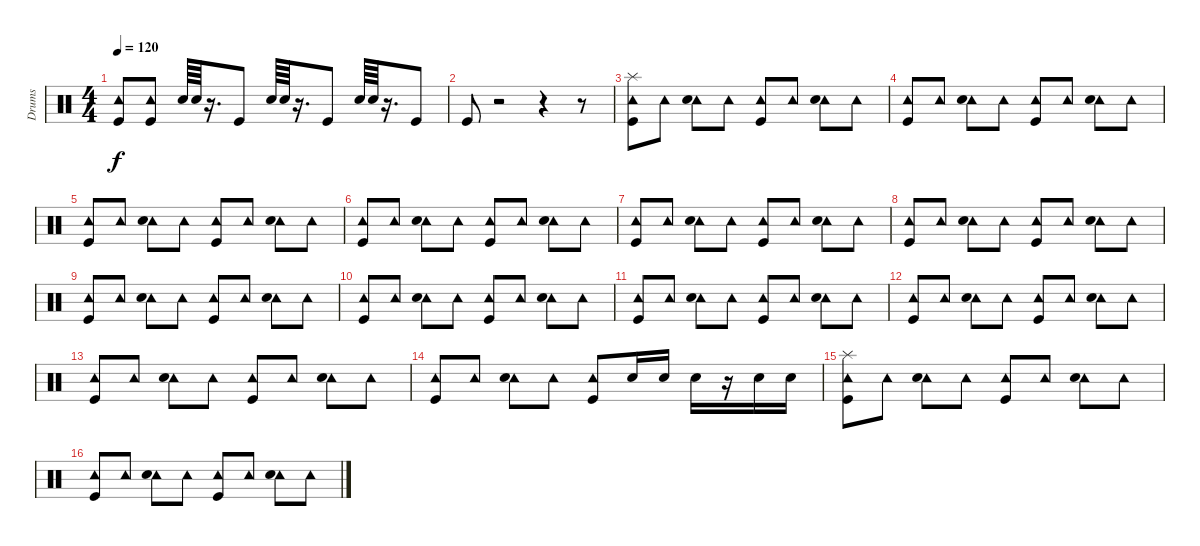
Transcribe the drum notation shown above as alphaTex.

\track ("Drums" "Drums") {instrument percussion}
\staff {score}
\articulation defaults
\ts (4 4)
\tempo 120
\clef neutral
\ks c
("Tambourine (hit)" "Kick (hit)").8{dy f} ("Tambourine (hit)" "Kick (hit)").8 "Snare (hit) 2".64 "Snare (hit) 2".64 r.16{d} "Kick (hit)".8 "Snare (hit) 2".64 "Snare (hit) 2".64 r.16{d} "Kick (hit)".8 "Snare (hit) 2".64 "Snare (hit) 2".64 r.16{d} "Kick (hit)".8 |
"Kick (hit)".8 r.2 r.4 r.8 |
("Tambourine (hit)" "Kick (hit)" "Splash (hit)").8 "Tambourine (hit)".8 ("Tambourine (hit)" "Snare (hit) 2").8 "Tambourine (hit)".8 ("Tambourine (hit)" "Kick (hit)").8 "Tambourine (hit)".8 ("Tambourine (hit)" "Snare (hit) 2").8 "Tambourine (hit)".8 |
("Tambourine (hit)" "Kick (hit)").8 "Tambourine (hit)".8 ("Tambourine (hit)" "Snare (hit) 2").8 "Tambourine (hit)".8 ("Tambourine (hit)" "Kick (hit)").8 "Tambourine (hit)".8 ("Tambourine (hit)" "Snare (hit) 2").8 "Tambourine (hit)".8 |
("Tambourine (hit)" "Kick (hit)").8 "Tambourine (hit)".8 ("Tambourine (hit)" "Snare (hit) 2").8 "Tambourine (hit)".8 ("Tambourine (hit)" "Kick (hit)").8 "Tambourine (hit)".8 ("Tambourine (hit)" "Snare (hit) 2").8 "Tambourine (hit)".8 |
("Tambourine (hit)" "Kick (hit)").8 "Tambourine (hit)".8 ("Tambourine (hit)" "Snare (hit) 2").8 "Tambourine (hit)".8 ("Tambourine (hit)" "Kick (hit)").8 "Tambourine (hit)".8 ("Tambourine (hit)" "Snare (hit) 2").8 "Tambourine (hit)".8 |
("Tambourine (hit)" "Kick (hit)").8 "Tambourine (hit)".8 ("Tambourine (hit)" "Snare (hit) 2").8 "Tambourine (hit)".8 ("Tambourine (hit)" "Kick (hit)").8 "Tambourine (hit)".8 ("Tambourine (hit)" "Snare (hit) 2").8 "Tambourine (hit)".8 |
("Tambourine (hit)" "Kick (hit)").8 "Tambourine (hit)".8 ("Tambourine (hit)" "Snare (hit) 2").8 "Tambourine (hit)".8 ("Tambourine (hit)" "Kick (hit)").8 "Tambourine (hit)".8 ("Tambourine (hit)" "Snare (hit) 2").8 "Tambourine (hit)".8 |
("Tambourine (hit)" "Kick (hit)").8 "Tambourine (hit)".8 ("Tambourine (hit)" "Snare (hit) 2").8 "Tambourine (hit)".8 ("Tambourine (hit)" "Kick (hit)").8 "Tambourine (hit)".8 ("Tambourine (hit)" "Snare (hit) 2").8 "Tambourine (hit)".8 |
("Tambourine (hit)" "Kick (hit)").8 "Tambourine (hit)".8 ("Tambourine (hit)" "Snare (hit) 2").8 "Tambourine (hit)".8 ("Tambourine (hit)" "Kick (hit)").8 "Tambourine (hit)".8 ("Tambourine (hit)" "Snare (hit) 2").8 "Tambourine (hit)".8 |
("Tambourine (hit)" "Kick (hit)").8 "Tambourine (hit)".8 ("Tambourine (hit)" "Snare (hit) 2").8 "Tambourine (hit)".8 ("Tambourine (hit)" "Kick (hit)").8 "Tambourine (hit)".8 ("Tambourine (hit)" "Snare (hit) 2").8 "Tambourine (hit)".8 |
("Tambourine (hit)" "Kick (hit)").8 "Tambourine (hit)".8 ("Tambourine (hit)" "Snare (hit) 2").8 "Tambourine (hit)".8 ("Tambourine (hit)" "Kick (hit)").8 "Tambourine (hit)".8 ("Tambourine (hit)" "Snare (hit) 2").8 "Tambourine (hit)".8 |
("Tambourine (hit)" "Kick (hit)").8 "Tambourine (hit)".8 ("Tambourine (hit)" "Snare (hit) 2").8 "Tambourine (hit)".8 ("Tambourine (hit)" "Kick (hit)").8 "Tambourine (hit)".8 ("Tambourine (hit)" "Snare (hit) 2").8 "Tambourine (hit)".8 |
("Tambourine (hit)" "Kick (hit)").8 "Tambourine (hit)".8 ("Tambourine (hit)" "Snare (hit) 2").8 "Tambourine (hit)".8 ("Tambourine (hit)" "Kick (hit)").8 "Snare (hit) 2".16 "Snare (hit) 2".16 "Snare (hit) 2".16 r.16 "Snare (hit) 2".16 "Snare (hit) 2".16 |
("Tambourine (hit)" "Kick (hit)" "Splash (hit)").8 "Tambourine (hit)".8 ("Tambourine (hit)" "Snare (hit) 2").8 "Tambourine (hit)".8 ("Tambourine (hit)" "Kick (hit)").8 "Tambourine (hit)".8 ("Tambourine (hit)" "Snare (hit) 2").8 "Tambourine (hit)".8 |
("Tambourine (hit)" "Kick (hit)").8 "Tambourine (hit)".8 ("Tambourine (hit)" "Snare (hit) 2").8 "Tambourine (hit)".8 ("Tambourine (hit)" "Kick (hit)").8 "Tambourine (hit)".8 ("Tambourine (hit)" "Snare (hit) 2").8 "Tambourine (hit)".8
